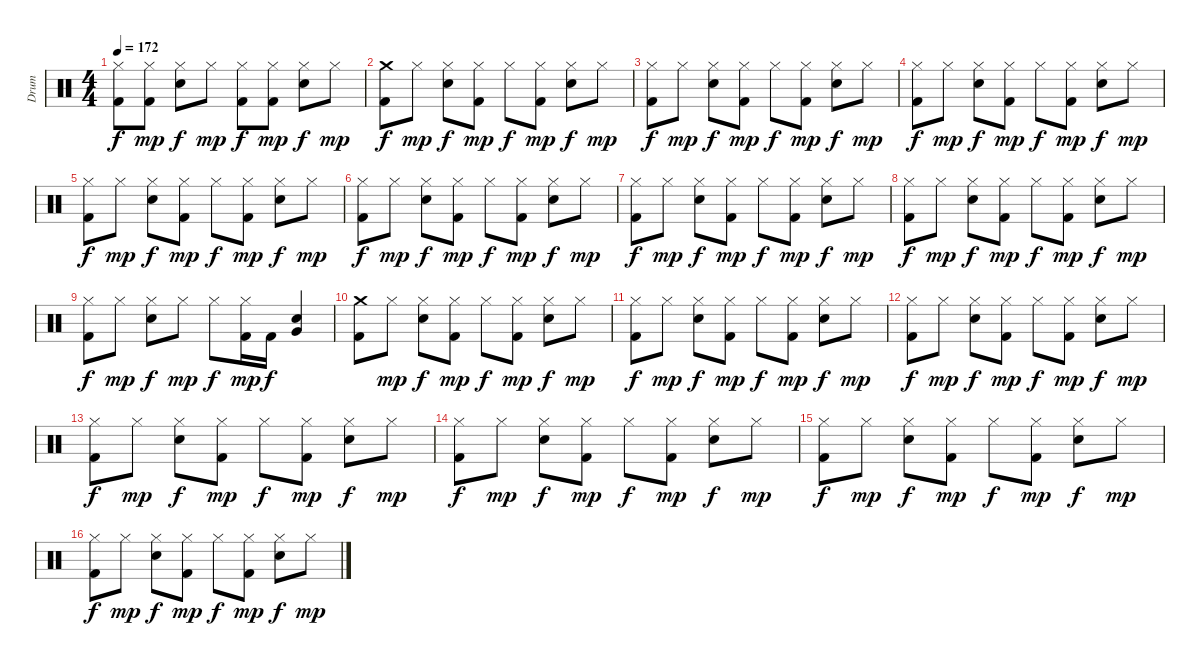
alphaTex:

\track ("Drum" "Drum") {instrument percussion}
\staff {score}
\articulation defaults
\ts (4 4)
\tempo 172
\clef neutral
\ks c
("Hi-Hat (closed)" "Kick (hit) 2").8{dy f} ("Hi-Hat (closed)" "Kick (hit) 2").8{dy mp} ("Hi-Hat (closed)" "Electric Snare (hit)").8{dy f} "Hi-Hat (closed)".8{dy mp} ("Hi-Hat (closed)" "Kick (hit) 2").8{dy f} ("Hi-Hat (closed)" "Kick (hit) 2").8{dy mp} ("Hi-Hat (closed)" "Electric Snare (hit)").8{dy f} "Hi-Hat (closed)".8{dy mp} |
("Crash medium (hit)" "Kick (hit) 2").8{dy f} "Hi-Hat (closed)".8{dy mp} ("Hi-Hat (closed)" "Electric Snare (hit)").8{dy f} ("Hi-Hat (closed)" "Kick (hit) 2").8{dy mp} "Hi-Hat (closed)".8{dy f} ("Hi-Hat (closed)" "Kick (hit) 2").8{dy mp} ("Hi-Hat (closed)" "Electric Snare (hit)").8{dy f} "Hi-Hat (closed)".8{dy mp} |
("Hi-Hat (closed)" "Kick (hit) 2").8{dy f} "Hi-Hat (closed)".8{dy mp} ("Hi-Hat (closed)" "Electric Snare (hit)").8{dy f} ("Hi-Hat (closed)" "Kick (hit) 2").8{dy mp} "Hi-Hat (closed)".8{dy f} ("Hi-Hat (closed)" "Kick (hit) 2").8{dy mp} ("Hi-Hat (closed)" "Electric Snare (hit)").8{dy f} "Hi-Hat (closed)".8{dy mp} |
("Hi-Hat (closed)" "Kick (hit) 2").8{dy f} "Hi-Hat (closed)".8{dy mp} ("Hi-Hat (closed)" "Electric Snare (hit)").8{dy f} ("Hi-Hat (closed)" "Kick (hit) 2").8{dy mp} "Hi-Hat (closed)".8{dy f} ("Hi-Hat (closed)" "Kick (hit) 2").8{dy mp} ("Hi-Hat (closed)" "Electric Snare (hit)").8{dy f} "Hi-Hat (closed)".8{dy mp} |
("Hi-Hat (closed)" "Kick (hit) 2").8{dy f} "Hi-Hat (closed)".8{dy mp} ("Hi-Hat (closed)" "Electric Snare (hit)").8{dy f} ("Hi-Hat (closed)" "Kick (hit) 2").8{dy mp} "Hi-Hat (closed)".8{dy f} ("Hi-Hat (closed)" "Kick (hit) 2").8{dy mp} ("Hi-Hat (closed)" "Electric Snare (hit)").8{dy f} "Hi-Hat (closed)".8{dy mp} |
("Hi-Hat (closed)" "Kick (hit) 2").8{dy f} "Hi-Hat (closed)".8{dy mp} ("Hi-Hat (closed)" "Electric Snare (hit)").8{dy f} ("Hi-Hat (closed)" "Kick (hit) 2").8{dy mp} "Hi-Hat (closed)".8{dy f} ("Hi-Hat (closed)" "Kick (hit) 2").8{dy mp} ("Hi-Hat (closed)" "Electric Snare (hit)").8{dy f} "Hi-Hat (closed)".8{dy mp} |
("Hi-Hat (closed)" "Kick (hit) 2").8{dy f} "Hi-Hat (closed)".8{dy mp} ("Hi-Hat (closed)" "Electric Snare (hit)").8{dy f} ("Hi-Hat (closed)" "Kick (hit) 2").8{dy mp} "Hi-Hat (closed)".8{dy f} ("Hi-Hat (closed)" "Kick (hit) 2").8{dy mp} ("Hi-Hat (closed)" "Electric Snare (hit)").8{dy f} "Hi-Hat (closed)".8{dy mp} |
("Hi-Hat (closed)" "Kick (hit) 2").8{dy f} "Hi-Hat (closed)".8{dy mp} ("Hi-Hat (closed)" "Electric Snare (hit)").8{dy f} ("Hi-Hat (closed)" "Kick (hit) 2").8{dy mp} "Hi-Hat (closed)".8{dy f} ("Hi-Hat (closed)" "Kick (hit) 2").8{dy mp} ("Hi-Hat (closed)" "Electric Snare (hit)").8{dy f} "Hi-Hat (closed)".8{dy mp} |
("Hi-Hat (closed)" "Kick (hit) 2").8{dy f} "Hi-Hat (closed)".8{dy mp} ("Hi-Hat (closed)" "Electric Snare (hit)").8{dy f} "Hi-Hat (closed)".8{dy mp} "Hi-Hat (closed)".8{dy f} ("Hi-Hat (closed)" "Kick (hit) 2").16{dy mp} "Kick (hit) 2".16{dy f} ("Electric Snare (hit)" "Very Low Tom (hit)").4 |
("Crash medium (hit)" "Kick (hit) 2").8 "Hi-Hat (closed)".8{dy mp} ("Hi-Hat (closed)" "Electric Snare (hit)").8{dy f} ("Hi-Hat (closed)" "Kick (hit) 2").8{dy mp} "Hi-Hat (closed)".8{dy f} ("Hi-Hat (closed)" "Kick (hit) 2").8{dy mp} ("Hi-Hat (closed)" "Electric Snare (hit)").8{dy f} "Hi-Hat (closed)".8{dy mp} |
("Hi-Hat (closed)" "Kick (hit) 2").8{dy f} "Hi-Hat (closed)".8{dy mp} ("Hi-Hat (closed)" "Electric Snare (hit)").8{dy f} ("Hi-Hat (closed)" "Kick (hit) 2").8{dy mp} "Hi-Hat (closed)".8{dy f} ("Hi-Hat (closed)" "Kick (hit) 2").8{dy mp} ("Hi-Hat (closed)" "Electric Snare (hit)").8{dy f} "Hi-Hat (closed)".8{dy mp} |
("Hi-Hat (closed)" "Kick (hit) 2").8{dy f} "Hi-Hat (closed)".8{dy mp} ("Hi-Hat (closed)" "Electric Snare (hit)").8{dy f} ("Hi-Hat (closed)" "Kick (hit) 2").8{dy mp} "Hi-Hat (closed)".8{dy f} ("Hi-Hat (closed)" "Kick (hit) 2").8{dy mp} ("Hi-Hat (closed)" "Electric Snare (hit)").8{dy f} "Hi-Hat (closed)".8{dy mp} |
("Hi-Hat (closed)" "Kick (hit) 2").8{dy f} "Hi-Hat (closed)".8{dy mp} ("Hi-Hat (closed)" "Electric Snare (hit)").8{dy f} ("Hi-Hat (closed)" "Kick (hit) 2").8{dy mp} "Hi-Hat (closed)".8{dy f} ("Hi-Hat (closed)" "Kick (hit) 2").8{dy mp} ("Hi-Hat (closed)" "Electric Snare (hit)").8{dy f} "Hi-Hat (closed)".8{dy mp} |
("Hi-Hat (closed)" "Kick (hit) 2").8{dy f} "Hi-Hat (closed)".8{dy mp} ("Hi-Hat (closed)" "Electric Snare (hit)").8{dy f} ("Hi-Hat (closed)" "Kick (hit) 2").8{dy mp} "Hi-Hat (closed)".8{dy f} ("Hi-Hat (closed)" "Kick (hit) 2").8{dy mp} ("Hi-Hat (closed)" "Electric Snare (hit)").8{dy f} "Hi-Hat (closed)".8{dy mp} |
("Hi-Hat (closed)" "Kick (hit) 2").8{dy f} "Hi-Hat (closed)".8{dy mp} ("Hi-Hat (closed)" "Electric Snare (hit)").8{dy f} ("Hi-Hat (closed)" "Kick (hit) 2").8{dy mp} "Hi-Hat (closed)".8{dy f} ("Hi-Hat (closed)" "Kick (hit) 2").8{dy mp} ("Hi-Hat (closed)" "Electric Snare (hit)").8{dy f} "Hi-Hat (closed)".8{dy mp} |
("Hi-Hat (closed)" "Kick (hit) 2").8{dy f} "Hi-Hat (closed)".8{dy mp} ("Hi-Hat (closed)" "Electric Snare (hit)").8{dy f} ("Hi-Hat (closed)" "Kick (hit) 2").8{dy mp} "Hi-Hat (closed)".8{dy f} ("Hi-Hat (closed)" "Kick (hit) 2").8{dy mp} ("Hi-Hat (closed)" "Electric Snare (hit)").8{dy f} "Hi-Hat (closed)".8{dy mp}
